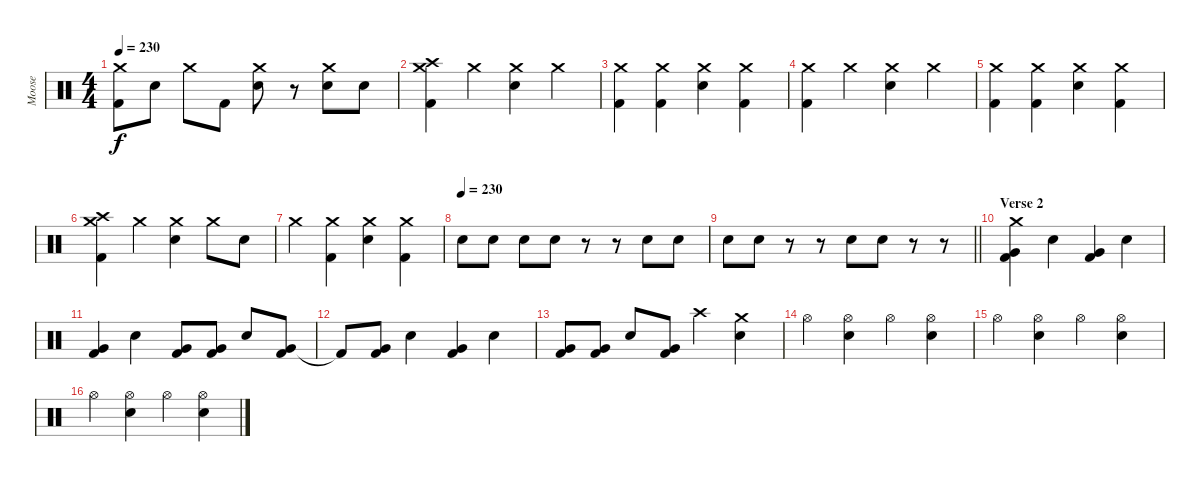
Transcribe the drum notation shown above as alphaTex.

\track ("Moose" "Moose") {instrument percussion}
\staff {score}
\articulation defaults
\ts (4 4)
\tempo 230
\clef neutral
\ks c
("Crash medium (hit)" "Kick (hit) 2").8{dy f} "Snare (hit) 2".8 "Crash medium (hit)".8 "Kick (hit) 2".8 ("Crash medium (hit)" "Snare (hit) 2").8 r.8 ("Crash medium (hit)" "Snare (hit) 2").8 "Snare (hit) 2".8 |
("Crash high (hit)" "Crash medium (hit)" "Kick (hit) 2").4 "Crash medium (hit)".4 ("Crash medium (hit)" "Snare (hit) 2").4 "Crash medium (hit)".4 |
("Crash medium (hit)" "Kick (hit) 2").4 ("Crash medium (hit)" "Kick (hit) 2").4 ("Crash medium (hit)" "Snare (hit) 2").4 ("Crash medium (hit)" "Kick (hit) 2").4 |
("Crash medium (hit)" "Kick (hit) 2").4 "Crash medium (hit)".4 ("Crash medium (hit)" "Snare (hit) 2").4 "Crash medium (hit)".4 |
("Crash medium (hit)" "Kick (hit) 2").4 ("Crash medium (hit)" "Kick (hit) 2").4 ("Crash medium (hit)" "Snare (hit) 2").4 ("Crash medium (hit)" "Kick (hit) 2").4 |
("Crash high (hit)" "Crash medium (hit)" "Kick (hit) 2").4 "Crash medium (hit)".4 ("Crash medium (hit)" "Snare (hit) 2").4 "Crash medium (hit)".8 "Snare (hit) 2".8 |
"Crash medium (hit)".4 ("Crash medium (hit)" "Kick (hit) 2").4 ("Crash medium (hit)" "Snare (hit) 2").4 ("Crash medium (hit)" "Kick (hit) 2").4 |
\tempo (230)
"Snare (hit) 2".8 "Snare (hit) 2".8 "Snare (hit) 2".8 "Snare (hit) 2".8 r.8 r.8 "Snare (hit) 2".8 "Snare (hit) 2".8 |
\barLineRight lightlight "Snare (hit) 2".8 "Snare (hit) 2".8
r.8 r.8 "Snare (hit) 2".8 "Snare (hit) 2".8 r.8 r.8 |
\section ("" "Verse 2")
("Crash medium (hit)" "Very Low Tom (hit)" "Kick (hit) 2").4 "Snare (hit) 2".4 ("Very Low Tom (hit)" "Kick (hit) 2").4 "Snare (hit) 2".4 |
("Very Low Tom (hit)" "Kick (hit) 2").4 "Snare (hit) 2".4 ("Very Low Tom (hit)" "Kick (hit) 2").8 ("Very Low Tom (hit)" "Kick (hit) 2").8 "Snare (hit) 2".8 ("Very Low Tom (hit)" "Kick (hit) 2").8 |
"Kick (hit) 2"{t}.8 ("Very Low Tom (hit)" "Kick (hit) 2").8 "Snare (hit) 2".4 ("Very Low Tom (hit)" "Kick (hit) 2").4 "Snare (hit) 2".4 |
("Very Low Tom (hit)" "Kick (hit) 2").8 ("Very Low Tom (hit)" "Kick (hit) 2").8 "Snare (hit) 2".8 ("Very Low Tom (hit)" "Kick (hit) 2").8 "Crash high (hit)".4 ("Crash medium (hit)" "Snare (hit) 2").4 |
"Hi-Hat (open)".4 ("Hi-Hat (open)" "Snare (hit) 2").4 "Hi-Hat (open)".4 ("Hi-Hat (open)" "Snare (hit) 2").4 |
"Hi-Hat (open)".4 ("Hi-Hat (open)" "Snare (hit) 2").4 "Hi-Hat (open)".4 ("Hi-Hat (open)" "Snare (hit) 2").4 |
"Hi-Hat (open)".4 ("Hi-Hat (open)" "Snare (hit) 2").4 "Hi-Hat (open)".4 ("Hi-Hat (open)" "Snare (hit) 2").4
